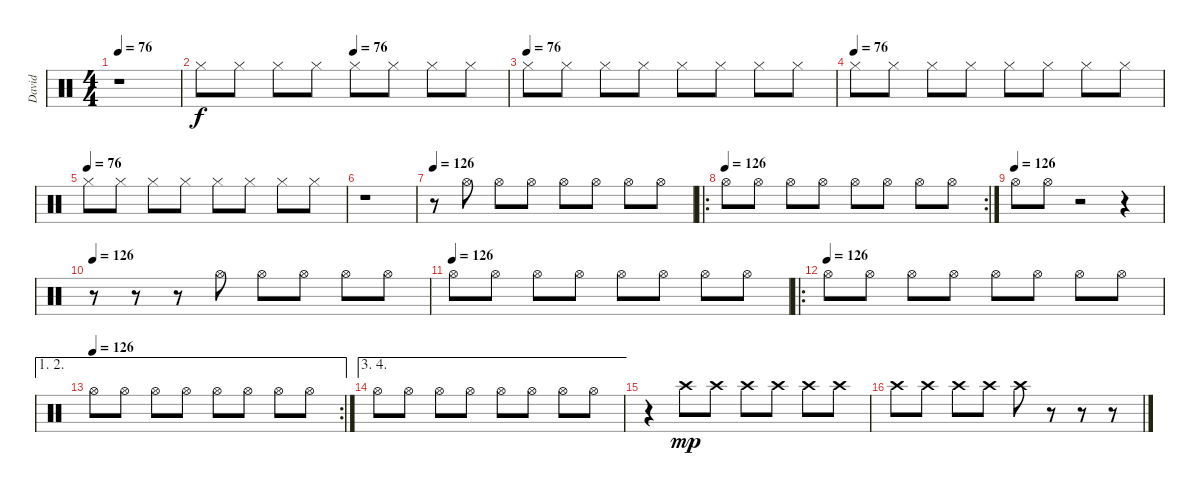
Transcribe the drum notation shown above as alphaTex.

\track ("David" "David") {instrument percussion}
\staff {score}
\articulation defaults
\ts (4 4)
\tempo 76
\clef neutral
\ks c
r.1{dy f} |
\tempo (76 0.5)
"Hi-Hat (closed)".8 "Hi-Hat (closed)".8 "Hi-Hat (closed)".8 "Hi-Hat (closed)".8 "Hi-Hat (closed)".8 "Hi-Hat (closed)".8 "Hi-Hat (closed)".8 "Hi-Hat (closed)".8 |
\tempo (76)
"Hi-Hat (closed)".8 "Hi-Hat (closed)".8 "Hi-Hat (closed)".8 "Hi-Hat (closed)".8 "Hi-Hat (closed)".8 "Hi-Hat (closed)".8 "Hi-Hat (closed)".8 "Hi-Hat (closed)".8 |
\tempo (76)
"Hi-Hat (closed)".8 "Hi-Hat (closed)".8 "Hi-Hat (closed)".8 "Hi-Hat (closed)".8 "Hi-Hat (closed)".8 "Hi-Hat (closed)".8 "Hi-Hat (closed)".8 "Hi-Hat (closed)".8 |
\tempo (76)
"Hi-Hat (closed)".8 "Hi-Hat (closed)".8 "Hi-Hat (closed)".8 "Hi-Hat (closed)".8 "Hi-Hat (closed)".8 "Hi-Hat (closed)".8 "Hi-Hat (closed)".8 "Hi-Hat (closed)".8 |
r.1 |
\tempo 126
r.8 "Hi-Hat (open)".8 "Hi-Hat (open)".8 "Hi-Hat (open)".8 "Hi-Hat (open)".8 "Hi-Hat (open)".8 "Hi-Hat (open)".8 "Hi-Hat (open)".8 |
\ro
\rc 2
\tempo (126)
"Hi-Hat (open)".8 "Hi-Hat (open)".8 "Hi-Hat (open)".8 "Hi-Hat (open)".8 "Hi-Hat (open)".8 "Hi-Hat (open)".8 "Hi-Hat (open)".8 "Hi-Hat (open)".8 |
\tempo (126)
"Hi-Hat (open)".8 "Hi-Hat (open)".8 r.2 r.4 |
\tempo 126
r.8 r.8 r.8 "Hi-Hat (open)".8 "Hi-Hat (open)".8 "Hi-Hat (open)".8 "Hi-Hat (open)".8 "Hi-Hat (open)".8 |
\tempo (126)
"Hi-Hat (open)".8 "Hi-Hat (open)".8 "Hi-Hat (open)".8 "Hi-Hat (open)".8 "Hi-Hat (open)".8 "Hi-Hat (open)".8 "Hi-Hat (open)".8 "Hi-Hat (open)".8 |
\ro
\tempo (126)
"Hi-Hat (open)".8 "Hi-Hat (open)".8 "Hi-Hat (open)".8 "Hi-Hat (open)".8 "Hi-Hat (open)".8 "Hi-Hat (open)".8 "Hi-Hat (open)".8 "Hi-Hat (open)".8 |
\ae (1 2)
\rc 2
\tempo (126)
"Hi-Hat (open)".8 "Hi-Hat (open)".8 "Hi-Hat (open)".8 "Hi-Hat (open)".8 "Hi-Hat (open)".8 "Hi-Hat (open)".8 "Hi-Hat (open)".8 "Hi-Hat (open)".8 |
\ae (3 4)
"Hi-Hat (open)".8 "Hi-Hat (open)".8 "Hi-Hat (open)".8 "Hi-Hat (open)".8 "Hi-Hat (open)".8 "Hi-Hat (open)".8 "Hi-Hat (open)".8 "Hi-Hat (open)".8 |
r.4 "Crash high (hit)".8{dy mp} "Crash high (hit)".8 "Crash high (hit)".8 "Crash high (hit)".8 "Crash high (hit)".8 "Crash high (hit)".8 |
"Crash high (hit)".8 "Crash high (hit)".8 "Crash high (hit)".8 "Crash high (hit)".8 "Crash high (hit)".8 r.8 r.8 r.8
